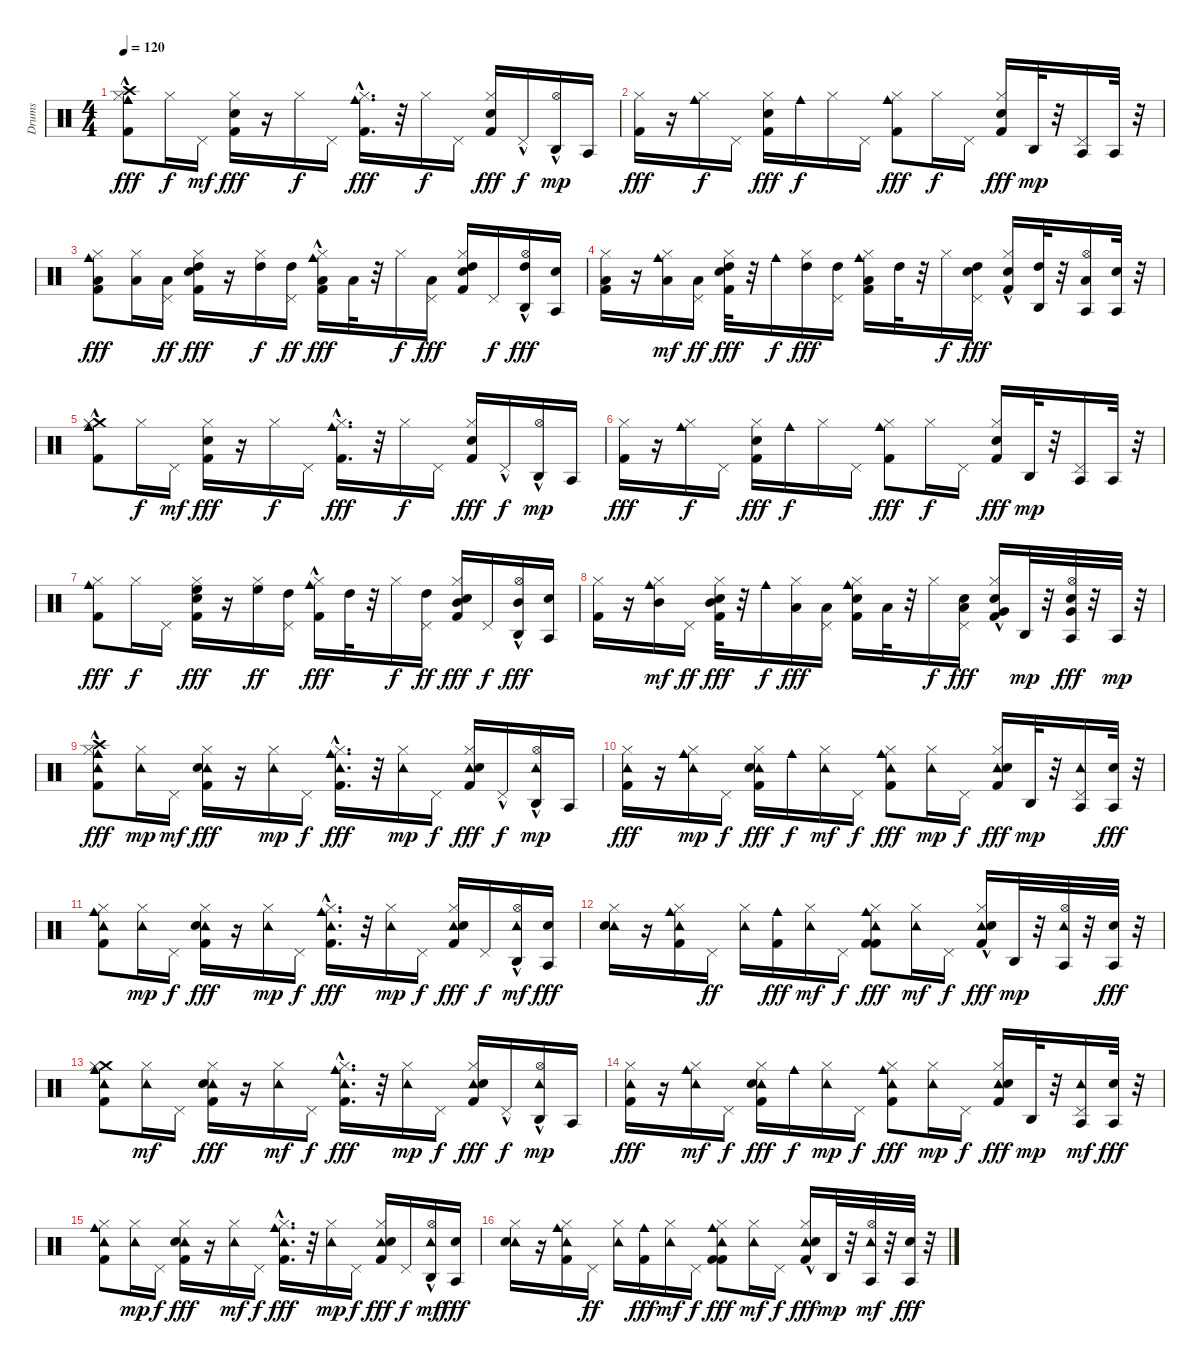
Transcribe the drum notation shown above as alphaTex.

\track ("Drums" "Drums") {instrument percussion}
\staff {score}
\articulation defaults
\ts (4 4)
\tempo 120
\clef neutral
\ks c
("Cowbell medium (hit)" "Crash high (hit)"{hac} "Hi-Hat (closed)" "Kick (hit) 2").8{dy fff} "Hi-Hat (closed)".16{dy f} "Pedal Hi-Hat (hit)".16{dy mf} ("Electric Snare (hit)" "Kick (hit) 2" "Hi-Hat (closed)").16{dy fff} r.16 "Hi-Hat (closed)".16{dy f} "Pedal Hi-Hat (hit)".16 ("Cowbell medium (hit)"{hac} "Kick (hit) 2" "Hi-Hat (closed)").16{d dy fff} r.32 "Hi-Hat (closed)".16{dy f} "Pedal Hi-Hat (hit)".16 ("Kick (hit) 2" "Electric Snare (hit)" "Hi-Hat (closed)").16{dy fff} "Pedal Hi-Hat (hit)"{hac}.16{dy f} ("Agogo high (hit)" "Hi-Hat (open)"{hac}).16{dy mp} "Agogo tow (hit)".16 |
("Kick (hit) 2" "Hi-Hat (closed)").16{dy fff} r.16 ("Cowbell medium (hit)" "Hi-Hat (closed)").16{dy f} "Pedal Hi-Hat (hit)".16 ("Hi-Hat (closed)" "Kick (hit) 2" "Electric Snare (hit)").16{dy fff} "Cowbell medium (hit)".16{dy f} "Hi-Hat (closed)".16 "Pedal Hi-Hat (hit)".16 ("Cowbell medium (hit)" "Kick (hit) 2" "Hi-Hat (closed)").8{dy fff} "Hi-Hat (closed)".16{dy f} "Pedal Hi-Hat (hit)".16 ("Electric Snare (hit)" "Kick (hit) 2" "Hi-Hat (closed)").16{dy fff} "Agogo high (hit)".32{dy mp} r.32 ("Agogo tow (hit)" "Pedal Hi-Hat (hit)").16 "Agogo tow (hit)".32 r.32 |
("Cowbell medium (hit)" "Kick (hit) 2" "Hi-Hat (closed)" "Low Tom (hit)").8{dy fff} ("Hi-Hat (closed)" "Low Tom (hit)").16 ("Low Tom (hit)" "Pedal Hi-Hat (hit)").16{dy ff} ("Electric Snare (hit)" "Kick (hit) 2" "Hi-Hat (closed)" "High Tom (hit)").16{dy fff} r.16 ("High Tom (hit)" "Hi-Hat (closed)").16{dy f} ("High Tom (hit)" "Pedal Hi-Hat (hit)").16{dy ff} ("Cowbell medium (hit)"{hac} "Low Tom (hit)" "Hi-Hat (closed)" "Kick (hit) 2").16{dy fff} "Low Tom (hit)".32 r.32 "Hi-Hat (closed)".16{dy f} ("Low Tom (hit)" "Pedal Hi-Hat (hit)").16{dy fff} ("High Tom (hit)" "Kick (hit) 2" "Electric Snare (hit)" "Hi-Hat (closed)").16 "Pedal Hi-Hat (hit)".16{dy f} ("Agogo high (hit)" "High Tom (hit)" "Hi-Hat (open)"{hac}).16{dy fff} ("Agogo tow (hit)" "Electric Snare (hit)").16 |
("Low Tom (hit)" "Kick (hit) 2" "Hi-Hat (closed)").16 r.16 ("Cowbell medium (hit)" "Low Tom (hit)" "Hi-Hat (closed)").16{dy mf} ("Low Tom (hit)" "Pedal Hi-Hat (hit)").16{dy ff} ("Electric Snare (hit)" "Kick (hit) 2" "Hi-Hat (closed)" "High Tom (hit)").32{dy fff} r.32 "Cowbell medium (hit)".16{dy f} ("Hi-Hat (closed)" "High Tom (hit)").16{dy fff} ("High Tom (hit)" "Pedal Hi-Hat (hit)").16 ("Cowbell medium (hit)" "Low Tom (hit)" "Hi-Hat (closed)" "Kick (hit) 2").16 "High Tom (hit)".32 r.32 "Hi-Hat (closed)".16{dy f} ("Pedal Hi-Hat (hit)" "Electric Snare (hit)" "High Tom (hit)").16{dy fff} ("Hi-Hat (closed)" "Kick (hit) 2"{hac} "Electric Snare (hit)").16 ("Agogo high (hit)" "High Tom (hit)").32 r.32 ("Agogo tow (hit)" "Low Tom (hit)" "Hi-Hat (open)").16 ("Agogo tow (hit)" "Electric Snare (hit)").32 r.32 |
("Cowbell medium (hit)" "Crash medium (hit)"{hac} "Hi-Hat (closed)" "Kick (hit) 2").8 "Hi-Hat (closed)".16{dy f} "Pedal Hi-Hat (hit)".16{dy mf} ("Electric Snare (hit)" "Kick (hit) 2" "Hi-Hat (closed)").16{dy fff} r.16 "Hi-Hat (closed)".16{dy f} "Pedal Hi-Hat (hit)".16 ("Cowbell medium (hit)"{hac} "Kick (hit) 2" "Hi-Hat (closed)").16{d dy fff} r.32 "Hi-Hat (closed)".16{dy f} "Pedal Hi-Hat (hit)".16 ("Kick (hit) 2" "Electric Snare (hit)" "Hi-Hat (closed)").16{dy fff} "Pedal Hi-Hat (hit)"{hac}.16{dy f} ("Agogo high (hit)" "Hi-Hat (open)"{hac}).16{dy mp} "Agogo tow (hit)".16 |
("Kick (hit) 2" "Hi-Hat (closed)").16{dy fff} r.16 ("Cowbell medium (hit)" "Hi-Hat (closed)").16{dy f} "Pedal Hi-Hat (hit)".16 ("Hi-Hat (closed)" "Kick (hit) 2" "Electric Snare (hit)").16{dy fff} "Cowbell medium (hit)".16{dy f} "Hi-Hat (closed)".16 "Pedal Hi-Hat (hit)".16 ("Cowbell medium (hit)" "Kick (hit) 2" "Hi-Hat (closed)").8{dy fff} "Hi-Hat (closed)".16{dy f} "Pedal Hi-Hat (hit)".16 ("Electric Snare (hit)" "Kick (hit) 2" "Hi-Hat (closed)").16{dy fff} "Agogo high (hit)".32{dy mp} r.32 ("Agogo tow (hit)" "Pedal Hi-Hat (hit)").16 "Agogo tow (hit)".32 r.32 |
("Cowbell medium (hit)" "Kick (hit) 2" "Hi-Hat (closed)").8{dy fff} "Hi-Hat (closed)".16{dy f} "Pedal Hi-Hat (hit)".16 ("Electric Snare (hit)" "Kick (hit) 2" "Hi-Hat (closed)" "High Floor Tom (hit)").16{dy fff} r.16 ("Hi-Hat (closed)" "High Floor Tom (hit)").16{dy ff} ("Pedal Hi-Hat (hit)" "High Tom (hit)").16 ("Cowbell medium (hit)"{hac} "Hi-Hat (closed)" "Kick (hit) 2").16{dy fff} "High Tom (hit)".32 r.32 "Hi-Hat (closed)".16{dy f} ("High Tom (hit)" "Pedal Hi-Hat (hit)").16{dy ff} ("Mid Tom (hit)" "Kick (hit) 2" "Electric Snare (hit)" "Hi-Hat (closed)").16{dy fff} "Pedal Hi-Hat (hit)".16{dy f} ("Agogo high (hit)" "Mid Tom (hit)" "Hi-Hat (open)"{hac}).16{dy fff} ("Agogo tow (hit)" "Electric Snare (hit)").16 |
("Kick (hit) 2" "Hi-Hat (closed)").16 r.16 ("Cowbell medium (hit)" "Mid Tom (hit)" "Hi-Hat (closed)").16{dy mf} "Pedal Hi-Hat (hit)".16{dy ff} ("Electric Snare (hit)" "Kick (hit) 2" "Hi-Hat (closed)" "Mid Tom (hit)").32{dy fff} r.32 "Cowbell medium (hit)".16{dy f} ("Hi-Hat (closed)" "Low Tom (hit)").16{dy fff} ("Pedal Hi-Hat (hit)" "Low Tom (hit)").16 ("Cowbell medium (hit)" "Electric Snare (hit)" "Hi-Hat (closed)" "Kick (hit) 2").16 "Low Tom (hit)".32 r.32 "Hi-Hat (closed)".16{dy f} ("Low Tom (hit)" "Pedal Hi-Hat (hit)" "Electric Snare (hit)").16{dy fff} ("Very Low Tom (hit)" "Hi-Hat (closed)" "Kick (hit) 2"{hac} "Electric Snare (hit)").16 "Agogo high (hit)".32{dy mp} r.32 ("Agogo tow (hit)" "Very Low Tom (hit)" "Electric Snare (hit)" "Hi-Hat (open)").32{dy fff} r.32 "Agogo tow (hit)".32{dy mp} r.32 |
("Tambourine (hit)" "Cowbell medium (hit)" "Crash high (hit)"{hac} "Hi-Hat (closed)" "Kick (hit) 2").8{dy fff} ("Tambourine (hit)" "Hi-Hat (closed)").16{dy mp} "Pedal Hi-Hat (hit)".16{dy mf} ("Tambourine (hit)" "Electric Snare (hit)" "Kick (hit) 2" "Hi-Hat (closed)").16{dy fff} r.16 ("Tambourine (hit)" "Hi-Hat (closed)").16{dy mp} "Pedal Hi-Hat (hit)".16{dy f} ("Tambourine (hit)" "Cowbell medium (hit)"{hac} "Kick (hit) 2" "Hi-Hat (closed)").16{d dy fff} r.32 ("Tambourine (hit)" "Hi-Hat (closed)").16{dy mp} "Pedal Hi-Hat (hit)".16{dy f} ("Tambourine (hit)" "Kick (hit) 2" "Electric Snare (hit)" "Hi-Hat (closed)").16{dy fff} "Pedal Hi-Hat (hit)"{hac}.16{dy f} ("Agogo high (hit)" "Tambourine (hit)" "Hi-Hat (open)"{hac}).16{dy mp} "Agogo tow (hit)".16 |
("Tambourine (hit)" "Kick (hit) 2" "Hi-Hat (closed)").16{dy fff} r.16 ("Cowbell medium (hit)" "Tambourine (hit)" "Hi-Hat (closed)").16{dy mp} "Pedal Hi-Hat (hit)".16{dy f} ("Tambourine (hit)" "Hi-Hat (closed)" "Kick (hit) 2" "Electric Snare (hit)").16{dy fff} "Cowbell medium (hit)".16{dy f} ("Tambourine (hit)" "Hi-Hat (closed)").16{dy mf} "Pedal Hi-Hat (hit)".16{dy f} ("Cowbell medium (hit)" "Tambourine (hit)" "Kick (hit) 2" "Hi-Hat (closed)").8{dy fff} ("Tambourine (hit)" "Hi-Hat (closed)").16{dy mp} "Pedal Hi-Hat (hit)".16{dy f} ("Tambourine (hit)" "Electric Snare (hit)" "Kick (hit) 2" "Hi-Hat (closed)").16{dy fff} "Agogo high (hit)".32{dy mp} r.32 ("Agogo tow (hit)" "Tambourine (hit)" "Pedal Hi-Hat (hit)").16 ("Agogo tow (hit)" "Electric Snare (hit)").32{dy fff} r.32 |
("Cowbell medium (hit)" "Tambourine (hit)" "Kick (hit) 2" "Hi-Hat (closed)").8 ("Tambourine (hit)" "Hi-Hat (closed)").16{dy mp} "Pedal Hi-Hat (hit)".16{dy f} ("Tambourine (hit)" "Electric Snare (hit)" "Kick (hit) 2" "Hi-Hat (closed)").16{dy fff} r.16 ("Tambourine (hit)" "Hi-Hat (closed)").16{dy mp} "Pedal Hi-Hat (hit)".16{dy f} ("Cowbell medium (hit)"{hac} "Tambourine (hit)" "Hi-Hat (closed)" "Kick (hit) 2").16{d dy fff} r.32 ("Tambourine (hit)" "Hi-Hat (closed)").16{dy mp} "Pedal Hi-Hat (hit)".16{dy f} ("Tambourine (hit)" "Kick (hit) 2" "Electric Snare (hit)" "Hi-Hat (closed)").16{dy fff} "Pedal Hi-Hat (hit)".16{dy f} ("Agogo high (hit)" "Tambourine (hit)" "Hi-Hat (open)"{hac}).16{dy mf} ("Agogo tow (hit)" "Electric Snare (hit)").16{dy fff} |
("Tambourine (hit)" "Electric Snare (hit)" "Hi-Hat (closed)").16 r.16 ("Tambourine (hit)" "Cowbell medium (hit)" "Hi-Hat (closed)" "Kick (hit) 2").16 "Pedal Hi-Hat (hit)".16{dy ff} ("Tambourine (hit)" "Hi-Hat (closed)").16 ("Cowbell medium (hit)" "Kick (hit) 2").16{dy fff} ("Tambourine (hit)" "Hi-Hat (closed)").16{dy mf} "Pedal Hi-Hat (hit)".16{dy f} ("Tambourine (hit)" "Cowbell medium (hit)" "Kick (hit) 2" "Hi-Hat (closed)" "Kick (hit) 2").8{dy fff} ("Tambourine (hit)" "Hi-Hat (closed)").16{dy mf} "Pedal Hi-Hat (hit)".16{dy f} ("Tambourine (hit)" "Hi-Hat (closed)" "Kick (hit) 2"{hac} "Electric Snare (hit)").16{dy fff} "Agogo high (hit)".32{dy mp} r.32 ("Agogo tow (hit)" "Tambourine (hit)" "Hi-Hat (open)").32 r.32 ("Agogo tow (hit)" "Electric Snare (hit)").32{dy fff} r.32 |
("Tambourine (hit)" "Cowbell medium (hit)" "Crash medium (hit)" "Hi-Hat (closed)" "Kick (hit) 2").8 ("Tambourine (hit)" "Hi-Hat (closed)").16{dy mf} "Pedal Hi-Hat (hit)".16 ("Tambourine (hit)" "Electric Snare (hit)" "Kick (hit) 2" "Hi-Hat (closed)").16{dy fff} r.16 ("Tambourine (hit)" "Hi-Hat (closed)").16{dy mf} "Pedal Hi-Hat (hit)".16{dy f} ("Tambourine (hit)" "Cowbell medium (hit)"{hac} "Kick (hit) 2" "Hi-Hat (closed)").16{d dy fff} r.32 ("Tambourine (hit)" "Hi-Hat (closed)").16{dy mp} "Pedal Hi-Hat (hit)".16{dy f} ("Tambourine (hit)" "Kick (hit) 2" "Electric Snare (hit)" "Hi-Hat (closed)").16{dy fff} "Pedal Hi-Hat (hit)"{hac}.16{dy f} ("Agogo high (hit)" "Tambourine (hit)" "Hi-Hat (open)"{hac}).16{dy mp} "Agogo tow (hit)".16 |
("Tambourine (hit)" "Kick (hit) 2" "Hi-Hat (closed)").16{dy fff} r.16 ("Cowbell medium (hit)" "Tambourine (hit)" "Hi-Hat (closed)").16{dy mf} "Pedal Hi-Hat (hit)".16{dy f} ("Tambourine (hit)" "Hi-Hat (closed)" "Kick (hit) 2" "Electric Snare (hit)").16{dy fff} "Cowbell medium (hit)".16{dy f} ("Tambourine (hit)" "Hi-Hat (closed)").16{dy mp} "Pedal Hi-Hat (hit)".16{dy f} ("Cowbell medium (hit)" "Tambourine (hit)" "Kick (hit) 2" "Hi-Hat (closed)").8{dy fff} ("Tambourine (hit)" "Hi-Hat (closed)").16{dy mp} "Pedal Hi-Hat (hit)".16{dy f} ("Tambourine (hit)" "Electric Snare (hit)" "Kick (hit) 2" "Hi-Hat (closed)").16{dy fff} "Agogo high (hit)".32{dy mp} r.32 ("Agogo tow (hit)" "Tambourine (hit)" "Pedal Hi-Hat (hit)").16{dy mf} ("Agogo tow (hit)" "Electric Snare (hit)").32{dy fff} r.32 |
("Tambourine (hit)" "Cowbell medium (hit)" "Kick (hit) 2" "Hi-Hat (closed)").8 ("Tambourine (hit)" "Hi-Hat (closed)").16{dy mp} "Pedal Hi-Hat (hit)".16{dy f} ("Tambourine (hit)" "Electric Snare (hit)" "Kick (hit) 2" "Hi-Hat (closed)").16{dy fff} r.16 ("Tambourine (hit)" "Hi-Hat (closed)").16{dy mf} "Pedal Hi-Hat (hit)".16{dy f} ("Tambourine (hit)" "Cowbell medium (hit)"{hac} "Hi-Hat (closed)" "Kick (hit) 2").16{d dy fff} r.32 ("Tambourine (hit)" "Hi-Hat (closed)").16{dy mp} "Pedal Hi-Hat (hit)".16{dy f} ("Tambourine (hit)" "Kick (hit) 2" "Electric Snare (hit)" "Hi-Hat (closed)").16{dy fff} "Pedal Hi-Hat (hit)".16{dy f} ("Agogo high (hit)" "Tambourine (hit)" "Hi-Hat (open)"{hac}).16{dy mf} ("Agogo tow (hit)" "Electric Snare (hit)").16{dy fff} |
("Tambourine (hit)" "Electric Snare (hit)" "Hi-Hat (closed)").16 r.16 ("Tambourine (hit)" "Cowbell medium (hit)" "Hi-Hat (closed)" "Kick (hit) 2").16 "Pedal Hi-Hat (hit)".16{dy ff} ("Tambourine (hit)" "Hi-Hat (closed)").16 ("Cowbell medium (hit)" "Kick (hit) 2").16{dy fff} ("Tambourine (hit)" "Hi-Hat (closed)").16{dy mf} "Pedal Hi-Hat (hit)".16{dy f} ("Tambourine (hit)" "Cowbell medium (hit)" "Kick (hit) 2" "Hi-Hat (closed)" "Kick (hit) 2").8{dy fff} ("Tambourine (hit)" "Hi-Hat (closed)").16{dy mf} "Pedal Hi-Hat (hit)".16{dy f} ("Tambourine (hit)" "Hi-Hat (closed)" "Kick (hit) 2"{hac} "Electric Snare (hit)").16{dy fff} "Agogo high (hit)".32{dy mp} r.32 ("Agogo tow (hit)" "Tambourine (hit)" "Hi-Hat (open)").32{dy mf} r.32 ("Agogo tow (hit)" "Electric Snare (hit)").32{dy fff} r.32
